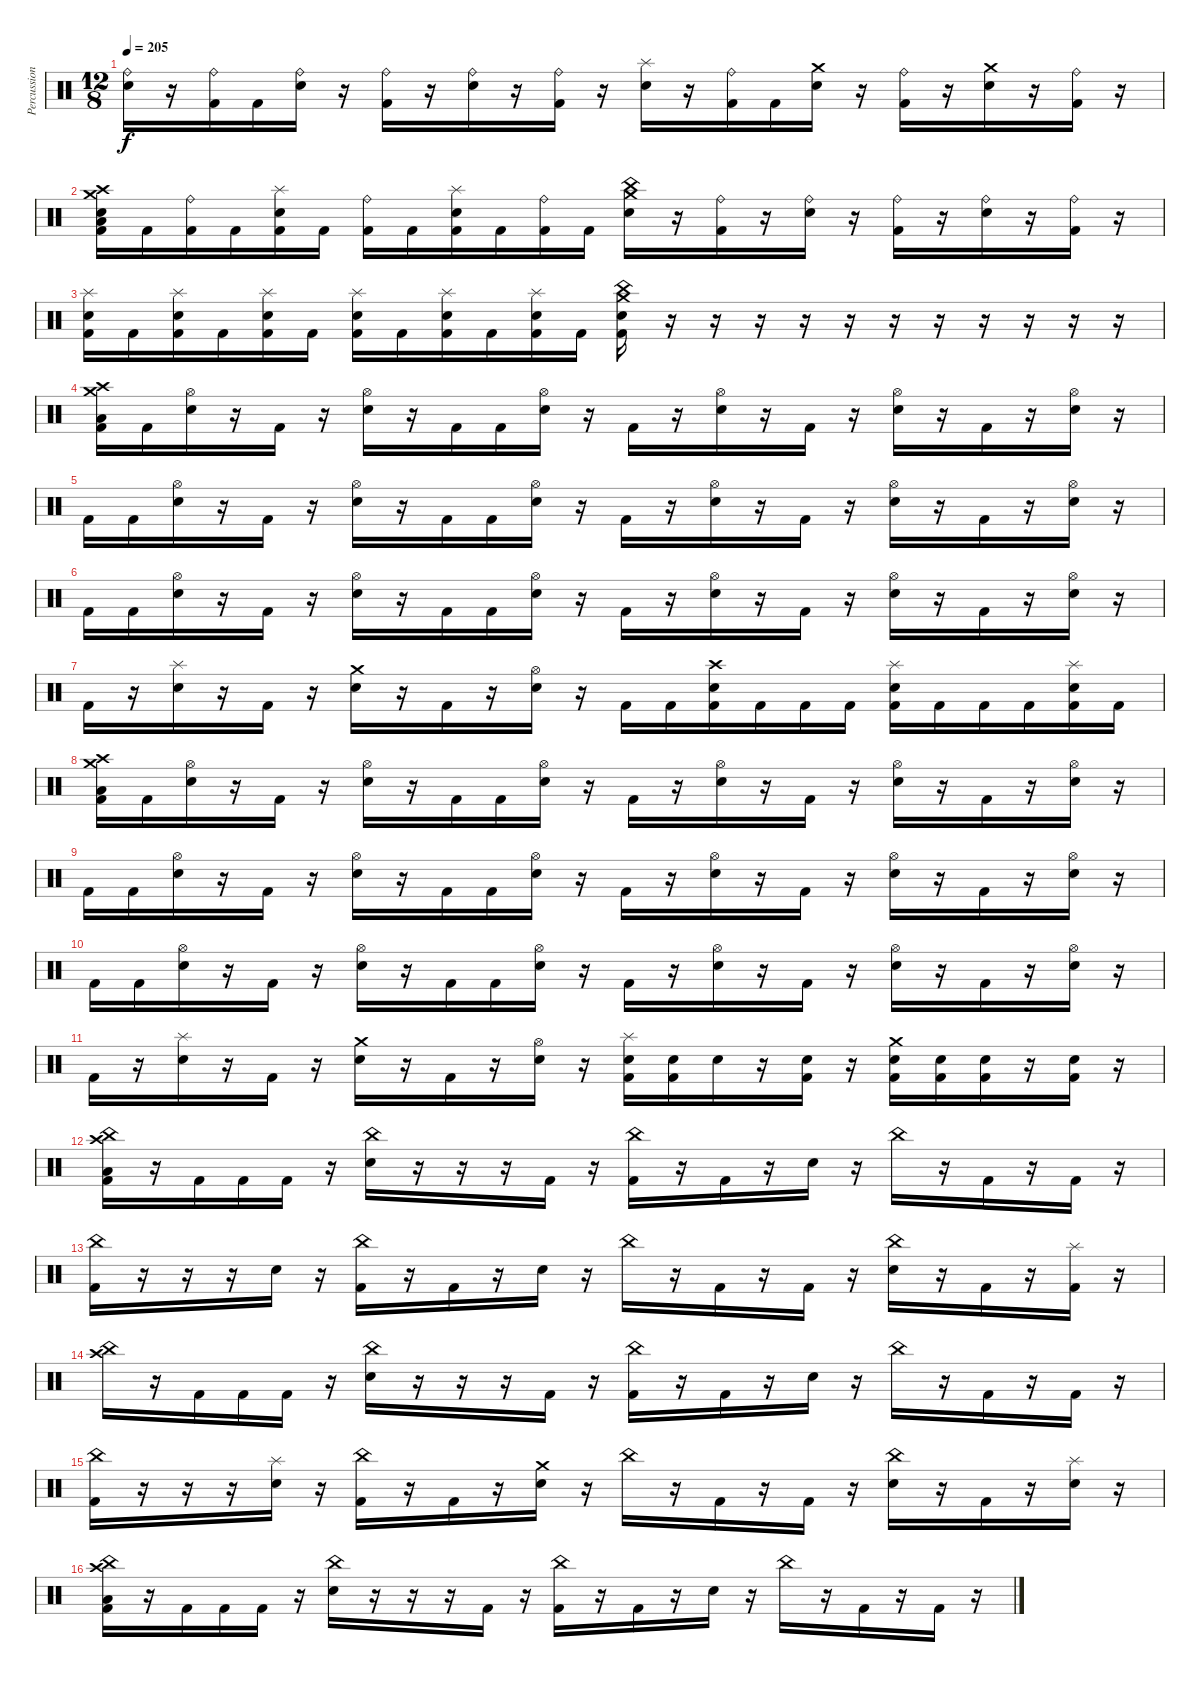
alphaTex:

\track ("Percussion" "Percussion") {instrument percussion}
\staff {score}
\articulation defaults
\ts (12 8)
\tempo 205
\clef neutral
\ks c
("Ride (bell)" "Electric Snare (hit)").16{dy f} r.16 ("Ride (bell)" "Kick (hit) 2").16 "Kick (hit) 2".16 ("Ride (bell)" "Electric Snare (hit)").16 r.16 ("Ride (bell)" "Kick (hit) 2").16 r.16 ("Ride (bell)" "Electric Snare (hit)").16 r.16 ("Ride (bell)" "Kick (hit) 2").16 r.16 ("Splash (hit)" "Electric Snare (hit)").16 r.16 ("Ride (bell)" "Kick (hit) 2").16 "Kick (hit) 2".16 ("Crash medium (hit)" "Electric Snare (hit)").16 r.16 ("Ride (bell)" "Kick (hit) 2").16 r.16 ("Crash medium (hit)" "Electric Snare (hit)").16 r.16 ("Ride (bell)" "Kick (hit) 2").16 r.16 |
("Crash high (hit)" "Crash medium (hit)" "Electric Snare (hit)" "Low Floor Tom (hit)" "Kick (hit) 2").16 "Kick (hit) 2".16 ("Ride (bell)" "Kick (hit) 2").16 "Kick (hit) 2".16 ("Splash (hit)" "Electric Snare (hit)" "Kick (hit) 2").16 "Kick (hit) 2".16 ("Ride (bell)" "Kick (hit) 2").16 "Kick (hit) 2".16 ("Splash (hit)" "Electric Snare (hit)" "Kick (hit) 2").16 "Kick (hit) 2".16 ("Ride (bell)" "Kick (hit) 2").16 "Kick (hit) 2".16 ("China (hit)" "Crash medium (hit)" "Electric Snare (hit)").16 r.16 ("Ride (bell)" "Kick (hit) 2").16 r.16 ("Ride (bell)" "Electric Snare (hit)").16 r.16 ("Ride (bell)" "Kick (hit) 2").16 r.16 ("Ride (bell)" "Electric Snare (hit)").16 r.16 ("Ride (bell)" "Kick (hit) 2").16 r.16 |
("Splash (hit)" "Electric Snare (hit)" "Kick (hit) 2").16 "Kick (hit) 2".16 ("Splash (hit)" "Electric Snare (hit)" "Kick (hit) 2").16 "Kick (hit) 2".16 ("Splash (hit)" "Electric Snare (hit)" "Kick (hit) 2").16 "Kick (hit) 2".16 ("Splash (hit)" "Electric Snare (hit)" "Kick (hit) 2").16 "Kick (hit) 2".16 ("Splash (hit)" "Electric Snare (hit)" "Kick (hit) 2").16 "Kick (hit) 2".16 ("Splash (hit)" "Electric Snare (hit)" "Kick (hit) 2").16 "Kick (hit) 2".16 ("Crash medium (hit)" "China (hit)" "Electric Snare (hit)" "Kick (hit) 2").16 r.16 r.16 r.16 r.16 r.16 r.16 r.16 r.16 r.16 r.16 r.16 |
("Crash high (hit)" "Crash medium (hit)" "Low Floor Tom (hit)" "Kick (hit) 2").16 "Kick (hit) 2".16 ("Hi-Hat (open)" "Electric Snare (hit)").16 r.16 "Kick (hit) 2".16 r.16 ("Hi-Hat (open)" "Electric Snare (hit)").16 r.16 "Kick (hit) 2".16 "Kick (hit) 2".16 ("Hi-Hat (open)" "Electric Snare (hit)").16 r.16 "Kick (hit) 2".16 r.16 ("Hi-Hat (open)" "Electric Snare (hit)").16 r.16 "Kick (hit) 2".16 r.16 ("Hi-Hat (open)" "Electric Snare (hit)").16 r.16 "Kick (hit) 2".16 r.16 ("Hi-Hat (open)" "Electric Snare (hit)").16 r.16 |
"Kick (hit) 2".16 "Kick (hit) 2".16 ("Hi-Hat (open)" "Electric Snare (hit)").16 r.16 "Kick (hit) 2".16 r.16 ("Hi-Hat (open)" "Electric Snare (hit)").16 r.16 "Kick (hit) 2".16 "Kick (hit) 2".16 ("Hi-Hat (open)" "Electric Snare (hit)").16 r.16 "Kick (hit) 2".16 r.16 ("Hi-Hat (open)" "Electric Snare (hit)").16 r.16 "Kick (hit) 2".16 r.16 ("Hi-Hat (open)" "Electric Snare (hit)").16 r.16 "Kick (hit) 2".16 r.16 ("Hi-Hat (open)" "Electric Snare (hit)").16 r.16 |
"Kick (hit) 2".16 "Kick (hit) 2".16 ("Hi-Hat (open)" "Electric Snare (hit)").16 r.16 "Kick (hit) 2".16 r.16 ("Hi-Hat (open)" "Electric Snare (hit)").16 r.16 "Kick (hit) 2".16 "Kick (hit) 2".16 ("Hi-Hat (open)" "Electric Snare (hit)").16 r.16 "Kick (hit) 2".16 r.16 ("Hi-Hat (open)" "Electric Snare (hit)").16 r.16 "Kick (hit) 2".16 r.16 ("Hi-Hat (open)" "Electric Snare (hit)").16 r.16 "Kick (hit) 2".16 r.16 ("Hi-Hat (open)" "Electric Snare (hit)").16 r.16 |
"Kick (hit) 2".16 r.16 ("Splash (hit)" "Electric Snare (hit)").16 r.16 "Kick (hit) 2".16 r.16 ("Crash medium (hit)" "Electric Snare (hit)").16 r.16 "Kick (hit) 2".16 r.16 ("Hi-Hat (open)" "Electric Snare (hit)").16 r.16 "Kick (hit) 2".16 "Kick (hit) 2".16 ("Crash high (hit)" "Electric Snare (hit)" "Kick (hit) 2").16 "Kick (hit) 2".16 "Kick (hit) 2".16 "Kick (hit) 2".16 ("Splash (hit)" "Electric Snare (hit)" "Kick (hit) 2").16 "Kick (hit) 2".16 "Kick (hit) 2".16 "Kick (hit) 2".16 ("Splash (hit)" "Electric Snare (hit)" "Kick (hit) 2").16 "Kick (hit) 2".16 |
("Crash high (hit)" "Crash medium (hit)" "Low Floor Tom (hit)" "Kick (hit) 2").16 "Kick (hit) 2".16 ("Hi-Hat (open)" "Electric Snare (hit)").16 r.16 "Kick (hit) 2".16 r.16 ("Hi-Hat (open)" "Electric Snare (hit)").16 r.16 "Kick (hit) 2".16 "Kick (hit) 2".16 ("Hi-Hat (open)" "Electric Snare (hit)").16 r.16 "Kick (hit) 2".16 r.16 ("Hi-Hat (open)" "Electric Snare (hit)").16 r.16 "Kick (hit) 2".16 r.16 ("Hi-Hat (open)" "Electric Snare (hit)").16 r.16 "Kick (hit) 2".16 r.16 ("Hi-Hat (open)" "Electric Snare (hit)").16 r.16 |
"Kick (hit) 2".16 "Kick (hit) 2".16 ("Hi-Hat (open)" "Electric Snare (hit)").16 r.16 "Kick (hit) 2".16 r.16 ("Hi-Hat (open)" "Electric Snare (hit)").16 r.16 "Kick (hit) 2".16 "Kick (hit) 2".16 ("Hi-Hat (open)" "Electric Snare (hit)").16 r.16 "Kick (hit) 2".16 r.16 ("Hi-Hat (open)" "Electric Snare (hit)").16 r.16 "Kick (hit) 2".16 r.16 ("Hi-Hat (open)" "Electric Snare (hit)").16 r.16 "Kick (hit) 2".16 r.16 ("Hi-Hat (open)" "Electric Snare (hit)").16 r.16 |
"Kick (hit) 2".16 "Kick (hit) 2".16 ("Hi-Hat (open)" "Electric Snare (hit)").16 r.16 "Kick (hit) 2".16 r.16 ("Hi-Hat (open)" "Electric Snare (hit)").16 r.16 "Kick (hit) 2".16 "Kick (hit) 2".16 ("Hi-Hat (open)" "Electric Snare (hit)").16 r.16 "Kick (hit) 2".16 r.16 ("Hi-Hat (open)" "Electric Snare (hit)").16 r.16 "Kick (hit) 2".16 r.16 ("Hi-Hat (open)" "Electric Snare (hit)").16 r.16 "Kick (hit) 2".16 r.16 ("Hi-Hat (open)" "Electric Snare (hit)").16 r.16 |
"Kick (hit) 2".16 r.16 ("Splash (hit)" "Electric Snare (hit)").16 r.16 "Kick (hit) 2".16 r.16 ("Crash medium (hit)" "Electric Snare (hit)").16 r.16 "Kick (hit) 2".16 r.16 ("Hi-Hat (open)" "Electric Snare (hit)").16 r.16 ("Splash (hit)" "Electric Snare (hit)" "Kick (hit) 2").16 ("Electric Snare (hit)" "Kick (hit) 2").16 "Electric Snare (hit)".16 r.16 ("Electric Snare (hit)" "Kick (hit) 2").16 r.16 ("Crash medium (hit)" "Electric Snare (hit)" "Kick (hit) 2").16 ("Electric Snare (hit)" "Kick (hit) 2").16 ("Electric Snare (hit)" "Kick (hit) 2").16 r.16 ("Electric Snare (hit)" "Kick (hit) 2").16 r.16 |
("Crash high (hit)" "China (hit)" "Low Floor Tom (hit)" "Kick (hit) 2").16 r.16 "Kick (hit) 2".16 "Kick (hit) 2".16 "Kick (hit) 2".16 r.16 ("China (hit)" "Electric Snare (hit)").16 r.16 r.16 r.16 "Kick (hit) 2".16 r.16 ("China (hit)" "Kick (hit) 2").16 r.16 "Kick (hit) 2".16 r.16 "Electric Snare (hit)".16 r.16 "China (hit)".16 r.16 "Kick (hit) 2".16 r.16 "Kick (hit) 2".16 r.16 |
("China (hit)" "Kick (hit) 2").16 r.16 r.16 r.16 "Electric Snare (hit)".16 r.16 ("China (hit)" "Kick (hit) 2").16 r.16 "Kick (hit) 2".16 r.16 "Electric Snare (hit)".16 r.16 "China (hit)".16 r.16 "Kick (hit) 2".16 r.16 "Kick (hit) 2".16 r.16 ("China (hit)" "Electric Snare (hit)").16 r.16 "Kick (hit) 2".16 r.16 ("Splash (hit)" "Kick (hit) 2").16 r.16 |
("China (hit)" "Crash high (hit)").16 r.16 "Kick (hit) 2".16 "Kick (hit) 2".16 "Kick (hit) 2".16 r.16 ("China (hit)" "Electric Snare (hit)").16 r.16 r.16 r.16 "Kick (hit) 2".16 r.16 ("China (hit)" "Kick (hit) 2").16 r.16 "Kick (hit) 2".16 r.16 "Electric Snare (hit)".16 r.16 "China (hit)".16 r.16 "Kick (hit) 2".16 r.16 "Kick (hit) 2".16 r.16 |
("China (hit)" "Kick (hit) 2").16 r.16 r.16 r.16 ("Splash (hit)" "Electric Snare (hit)").16 r.16 ("China (hit)" "Kick (hit) 2").16 r.16 "Kick (hit) 2".16 r.16 ("Crash medium (hit)" "Electric Snare (hit)").16 r.16 "China (hit)".16 r.16 "Kick (hit) 2".16 r.16 "Kick (hit) 2".16 r.16 ("China (hit)" "Electric Snare (hit)").16 r.16 "Kick (hit) 2".16 r.16 ("Splash (hit)" "Electric Snare (hit)").16 r.16 |
("Crash high (hit)" "China (hit)" "Low Floor Tom (hit)" "Kick (hit) 2").16 r.16 "Kick (hit) 2".16 "Kick (hit) 2".16 "Kick (hit) 2".16 r.16 ("China (hit)" "Electric Snare (hit)").16 r.16 r.16 r.16 "Kick (hit) 2".16 r.16 ("China (hit)" "Kick (hit) 2").16 r.16 "Kick (hit) 2".16 r.16 "Electric Snare (hit)".16 r.16 "China (hit)".16 r.16 "Kick (hit) 2".16 r.16 "Kick (hit) 2".16 r.16
